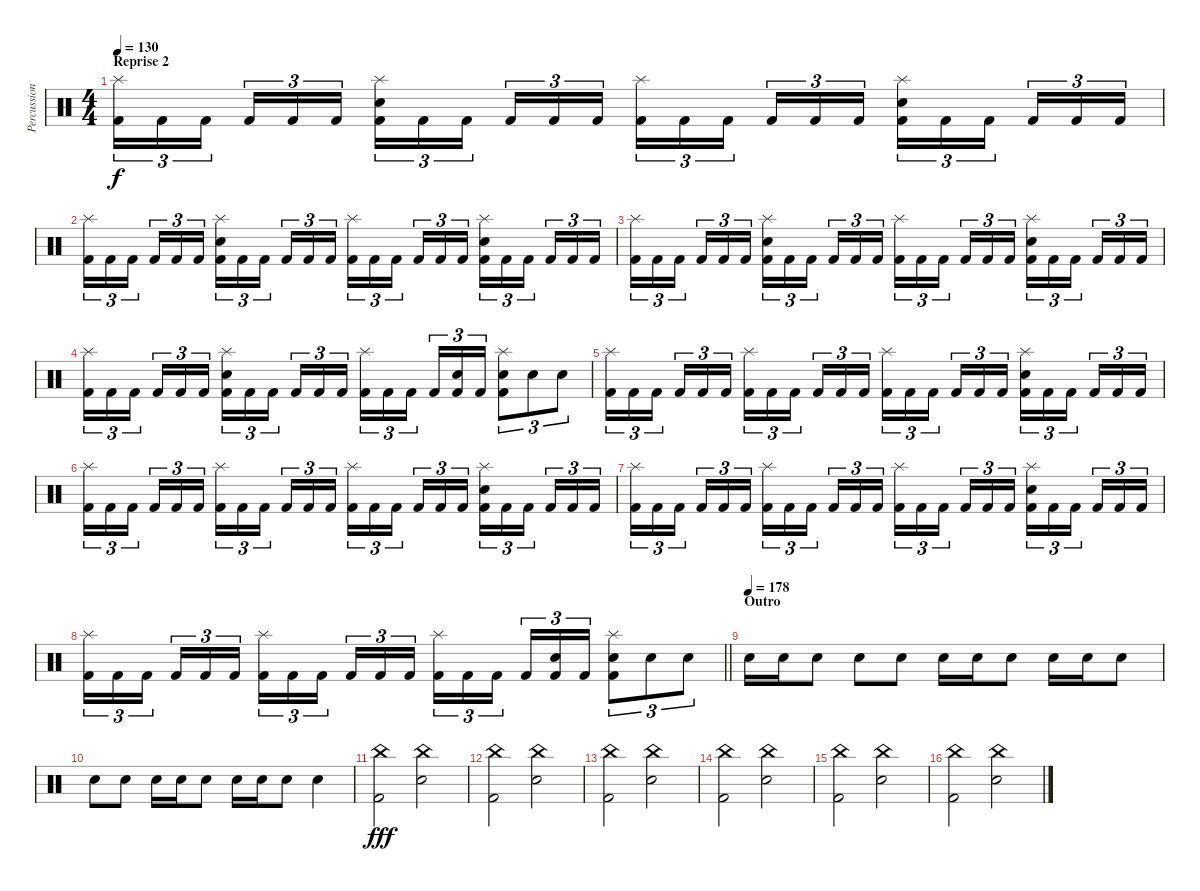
\track ("Percussion" "Percussion") {instrument percussion}
\staff {score}
\articulation defaults
\ts (4 4)
\section ("" "Reprise 2")
\tempo 130
\clef neutral
\ks c
("Splash (hit)" "Kick (hit) 2").16{tu (3 2) dy f} "Kick (hit) 2".16{tu (3 2)} "Kick (hit) 2".16{tu (3 2)} "Kick (hit) 2".16{tu (3 2)} "Kick (hit) 2".16{tu (3 2)} "Kick (hit) 2".16{tu (3 2)} ("Splash (hit)" "Electric Snare (hit)" "Kick (hit) 2").16{tu (3 2)} "Kick (hit) 2".16{tu (3 2)} "Kick (hit) 2".16{tu (3 2)} "Kick (hit) 2".16{tu (3 2)} "Kick (hit) 2".16{tu (3 2)} "Kick (hit) 2".16{tu (3 2)} ("Splash (hit)" "Kick (hit) 2").16{tu (3 2)} "Kick (hit) 2".16{tu (3 2)} "Kick (hit) 2".16{tu (3 2)} "Kick (hit) 2".16{tu (3 2)} "Kick (hit) 2".16{tu (3 2)} "Kick (hit) 2".16{tu (3 2)} ("Splash (hit)" "Electric Snare (hit)" "Kick (hit) 2").16{tu (3 2)} "Kick (hit) 2".16{tu (3 2)} "Kick (hit) 2".16{tu (3 2)} "Kick (hit) 2".16{tu (3 2)} "Kick (hit) 2".16{tu (3 2)} "Kick (hit) 2".16{tu (3 2)} |
("Splash (hit)" "Kick (hit) 2").16{tu (3 2)} "Kick (hit) 2".16{tu (3 2)} "Kick (hit) 2".16{tu (3 2)} "Kick (hit) 2".16{tu (3 2)} "Kick (hit) 2".16{tu (3 2)} "Kick (hit) 2".16{tu (3 2)} ("Splash (hit)" "Electric Snare (hit)" "Kick (hit) 2").16{tu (3 2)} "Kick (hit) 2".16{tu (3 2)} "Kick (hit) 2".16{tu (3 2)} "Kick (hit) 2".16{tu (3 2)} "Kick (hit) 2".16{tu (3 2)} "Kick (hit) 2".16{tu (3 2)} ("Splash (hit)" "Kick (hit) 2").16{tu (3 2)} "Kick (hit) 2".16{tu (3 2)} "Kick (hit) 2".16{tu (3 2)} "Kick (hit) 2".16{tu (3 2)} "Kick (hit) 2".16{tu (3 2)} "Kick (hit) 2".16{tu (3 2)} ("Splash (hit)" "Electric Snare (hit)" "Kick (hit) 2").16{tu (3 2)} "Kick (hit) 2".16{tu (3 2)} "Kick (hit) 2".16{tu (3 2)} "Kick (hit) 2".16{tu (3 2)} "Kick (hit) 2".16{tu (3 2)} "Kick (hit) 2".16{tu (3 2)} |
("Splash (hit)" "Kick (hit) 2").16{tu (3 2)} "Kick (hit) 2".16{tu (3 2)} "Kick (hit) 2".16{tu (3 2)} "Kick (hit) 2".16{tu (3 2)} "Kick (hit) 2".16{tu (3 2)} "Kick (hit) 2".16{tu (3 2)} ("Splash (hit)" "Electric Snare (hit)" "Kick (hit) 2").16{tu (3 2)} "Kick (hit) 2".16{tu (3 2)} "Kick (hit) 2".16{tu (3 2)} "Kick (hit) 2".16{tu (3 2)} "Kick (hit) 2".16{tu (3 2)} "Kick (hit) 2".16{tu (3 2)} ("Splash (hit)" "Kick (hit) 2").16{tu (3 2)} "Kick (hit) 2".16{tu (3 2)} "Kick (hit) 2".16{tu (3 2)} "Kick (hit) 2".16{tu (3 2)} "Kick (hit) 2".16{tu (3 2)} "Kick (hit) 2".16{tu (3 2)} ("Splash (hit)" "Electric Snare (hit)" "Kick (hit) 2").16{tu (3 2)} "Kick (hit) 2".16{tu (3 2)} "Kick (hit) 2".16{tu (3 2)} "Kick (hit) 2".16{tu (3 2)} "Kick (hit) 2".16{tu (3 2)} "Kick (hit) 2".16{tu (3 2)} |
("Splash (hit)" "Kick (hit) 2").16{tu (3 2)} "Kick (hit) 2".16{tu (3 2)} "Kick (hit) 2".16{tu (3 2)} "Kick (hit) 2".16{tu (3 2)} "Kick (hit) 2".16{tu (3 2)} "Kick (hit) 2".16{tu (3 2)} ("Splash (hit)" "Electric Snare (hit)" "Kick (hit) 2").16{tu (3 2)} "Kick (hit) 2".16{tu (3 2)} "Kick (hit) 2".16{tu (3 2)} "Kick (hit) 2".16{tu (3 2)} "Kick (hit) 2".16{tu (3 2)} "Kick (hit) 2".16{tu (3 2)} ("Splash (hit)" "Kick (hit) 2").16{tu (3 2)} "Kick (hit) 2".16{tu (3 2)} "Kick (hit) 2".16{tu (3 2)} "Kick (hit) 2".16{tu (3 2)} ("Electric Snare (hit)" "Kick (hit) 2").16{tu (3 2)} "Kick (hit) 2".16{tu (3 2)} ("Splash (hit)" "Electric Snare (hit)" "Kick (hit) 2").8{tu (3 2)} "Electric Snare (hit)".8{tu (3 2)} "Electric Snare (hit)".8{tu (3 2)} |
("Splash (hit)" "Kick (hit) 2").16{tu (3 2)} "Kick (hit) 2".16{tu (3 2)} "Kick (hit) 2".16{tu (3 2)} "Kick (hit) 2".16{tu (3 2)} "Kick (hit) 2".16{tu (3 2)} "Kick (hit) 2".16{tu (3 2)} ("Splash (hit)" "Kick (hit) 2").16{tu (3 2)} "Kick (hit) 2".16{tu (3 2)} "Kick (hit) 2".16{tu (3 2)} "Kick (hit) 2".16{tu (3 2)} "Kick (hit) 2".16{tu (3 2)} "Kick (hit) 2".16{tu (3 2)} ("Splash (hit)" "Kick (hit) 2").16{tu (3 2)} "Kick (hit) 2".16{tu (3 2)} "Kick (hit) 2".16{tu (3 2)} "Kick (hit) 2".16{tu (3 2)} "Kick (hit) 2".16{tu (3 2)} "Kick (hit) 2".16{tu (3 2)} ("Splash (hit)" "Electric Snare (hit)" "Kick (hit) 2").16{tu (3 2)} "Kick (hit) 2".16{tu (3 2)} "Kick (hit) 2".16{tu (3 2)} "Kick (hit) 2".16{tu (3 2)} "Kick (hit) 2".16{tu (3 2)} "Kick (hit) 2".16{tu (3 2)} |
("Splash (hit)" "Kick (hit) 2").16{tu (3 2)} "Kick (hit) 2".16{tu (3 2)} "Kick (hit) 2".16{tu (3 2)} "Kick (hit) 2".16{tu (3 2)} "Kick (hit) 2".16{tu (3 2)} "Kick (hit) 2".16{tu (3 2)} ("Splash (hit)" "Kick (hit) 2").16{tu (3 2)} "Kick (hit) 2".16{tu (3 2)} "Kick (hit) 2".16{tu (3 2)} "Kick (hit) 2".16{tu (3 2)} "Kick (hit) 2".16{tu (3 2)} "Kick (hit) 2".16{tu (3 2)} ("Splash (hit)" "Kick (hit) 2").16{tu (3 2)} "Kick (hit) 2".16{tu (3 2)} "Kick (hit) 2".16{tu (3 2)} "Kick (hit) 2".16{tu (3 2)} "Kick (hit) 2".16{tu (3 2)} "Kick (hit) 2".16{tu (3 2)} ("Splash (hit)" "Electric Snare (hit)" "Kick (hit) 2").16{tu (3 2)} "Kick (hit) 2".16{tu (3 2)} "Kick (hit) 2".16{tu (3 2)} "Kick (hit) 2".16{tu (3 2)} "Kick (hit) 2".16{tu (3 2)} "Kick (hit) 2".16{tu (3 2)} |
("Splash (hit)" "Kick (hit) 2").16{tu (3 2)} "Kick (hit) 2".16{tu (3 2)} "Kick (hit) 2".16{tu (3 2)} "Kick (hit) 2".16{tu (3 2)} "Kick (hit) 2".16{tu (3 2)} "Kick (hit) 2".16{tu (3 2)} ("Splash (hit)" "Kick (hit) 2").16{tu (3 2)} "Kick (hit) 2".16{tu (3 2)} "Kick (hit) 2".16{tu (3 2)} "Kick (hit) 2".16{tu (3 2)} "Kick (hit) 2".16{tu (3 2)} "Kick (hit) 2".16{tu (3 2)} ("Splash (hit)" "Kick (hit) 2").16{tu (3 2)} "Kick (hit) 2".16{tu (3 2)} "Kick (hit) 2".16{tu (3 2)} "Kick (hit) 2".16{tu (3 2)} "Kick (hit) 2".16{tu (3 2)} "Kick (hit) 2".16{tu (3 2)} ("Splash (hit)" "Electric Snare (hit)" "Kick (hit) 2").16{tu (3 2)} "Kick (hit) 2".16{tu (3 2)} "Kick (hit) 2".16{tu (3 2)} "Kick (hit) 2".16{tu (3 2)} "Kick (hit) 2".16{tu (3 2)} "Kick (hit) 2".16{tu (3 2)} |
\barLineRight lightlight
("Splash (hit)" "Kick (hit) 2").16{tu (3 2)} "Kick (hit) 2".16{tu (3 2)} "Kick (hit) 2".16{tu (3 2)} "Kick (hit) 2".16{tu (3 2)} "Kick (hit) 2".16{tu (3 2)} "Kick (hit) 2".16{tu (3 2)} ("Splash (hit)" "Kick (hit) 2").16{tu (3 2)} "Kick (hit) 2".16{tu (3 2)} "Kick (hit) 2".16{tu (3 2)} "Kick (hit) 2".16{tu (3 2)} "Kick (hit) 2".16{tu (3 2)} "Kick (hit) 2".16{tu (3 2)} ("Splash (hit)" "Kick (hit) 2").16{tu (3 2)} "Kick (hit) 2".16{tu (3 2)} "Kick (hit) 2".16{tu (3 2)} "Kick (hit) 2".16{tu (3 2)} ("Electric Snare (hit)" "Kick (hit) 2").16{tu (3 2)} "Kick (hit) 2".16{tu (3 2)} ("Splash (hit)" "Electric Snare (hit)" "Kick (hit) 2").8{tu (3 2)} "Electric Snare (hit)".8{tu (3 2)} "Electric Snare (hit)".8{tu (3 2)} |
\section ("" "Outro")
\tempo 161
\tempo (178)
"Snare (hit) 2".16 "Snare (hit) 2".16 "Snare (hit) 2".8 "Snare (hit) 2".8 "Snare (hit) 2".8 "Snare (hit) 2".16 "Snare (hit) 2".16 "Snare (hit) 2".8 "Snare (hit) 2".16 "Snare (hit) 2".16 "Snare (hit) 2".8 |
"Snare (hit) 2".8 "Snare (hit) 2".8 "Snare (hit) 2".16 "Snare (hit) 2".16 "Snare (hit) 2".8 "Snare (hit) 2".16 "Snare (hit) 2".16 "Snare (hit) 2".8 "Snare (hit) 2".4 |
("China (hit)" "Kick (hit) 2").2{dy fff} ("China (hit)" "Snare (hit) 2").2 |
("China (hit)" "Kick (hit) 2").2 ("China (hit)" "Snare (hit) 2").2 |
("China (hit)" "Kick (hit) 2").2 ("China (hit)" "Snare (hit) 2").2 |
("China (hit)" "Kick (hit) 2").2 ("China (hit)" "Snare (hit) 2").2 |
("China (hit)" "Kick (hit) 2").2 ("China (hit)" "Snare (hit) 2").2 |
("China (hit)" "Kick (hit) 2").2 ("China (hit)" "Snare (hit) 2").2
